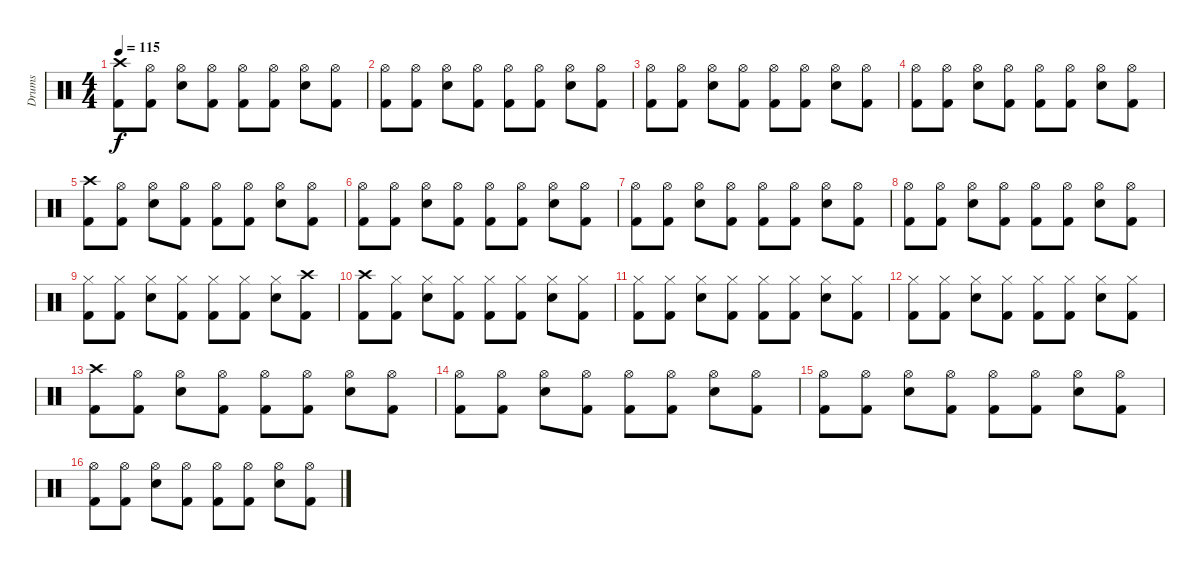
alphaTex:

\track ("Drums" "Drums") {instrument percussion}
\staff {score}
\articulation defaults
\ts (4 4)
\tempo 115
\clef neutral
\ks c
("Kick (hit) 2" "Crash high (hit)").8{dy f} ("Kick (hit) 2" "Hi-Hat (open)").8 ("Electric Snare (hit)" "Hi-Hat (open)").8 ("Kick (hit) 2" "Hi-Hat (open)").8 ("Kick (hit) 2" "Hi-Hat (open)").8 ("Kick (hit) 2" "Hi-Hat (open)").8 ("Electric Snare (hit)" "Hi-Hat (open)").8 ("Hi-Hat (open)" "Kick (hit) 2").8 |
("Kick (hit) 2" "Hi-Hat (open)").8 ("Kick (hit) 2" "Hi-Hat (open)").8 ("Hi-Hat (open)" "Electric Snare (hit)").8 ("Hi-Hat (open)" "Kick (hit) 2").8 ("Hi-Hat (open)" "Kick (hit) 2").8 ("Hi-Hat (open)" "Kick (hit) 2").8 ("Hi-Hat (open)" "Electric Snare (hit)").8 ("Hi-Hat (open)" "Kick (hit) 2").8 |
("Kick (hit) 2" "Hi-Hat (open)").8 ("Kick (hit) 2" "Hi-Hat (open)").8 ("Electric Snare (hit)" "Hi-Hat (open)").8 ("Kick (hit) 2" "Hi-Hat (open)").8 ("Kick (hit) 2" "Hi-Hat (open)").8 ("Kick (hit) 2" "Hi-Hat (open)").8 ("Electric Snare (hit)" "Hi-Hat (open)").8 ("Hi-Hat (open)" "Kick (hit) 2").8 |
("Kick (hit) 2" "Hi-Hat (open)").8 ("Kick (hit) 2" "Hi-Hat (open)").8 ("Hi-Hat (open)" "Electric Snare (hit)").8 ("Hi-Hat (open)" "Kick (hit) 2").8 ("Hi-Hat (open)" "Kick (hit) 2").8 ("Hi-Hat (open)" "Kick (hit) 2").8 ("Hi-Hat (open)" "Electric Snare (hit)").8 ("Hi-Hat (open)" "Kick (hit) 2").8 |
("Kick (hit) 2" "Crash high (hit)").8 ("Kick (hit) 2" "Hi-Hat (open)").8 ("Electric Snare (hit)" "Hi-Hat (open)").8 ("Kick (hit) 2" "Hi-Hat (open)").8 ("Kick (hit) 2" "Hi-Hat (open)").8 ("Kick (hit) 2" "Hi-Hat (open)").8 ("Electric Snare (hit)" "Hi-Hat (open)").8 ("Hi-Hat (open)" "Kick (hit) 2").8 |
("Kick (hit) 2" "Hi-Hat (open)").8 ("Kick (hit) 2" "Hi-Hat (open)").8 ("Hi-Hat (open)" "Electric Snare (hit)").8 ("Hi-Hat (open)" "Kick (hit) 2").8 ("Hi-Hat (open)" "Kick (hit) 2").8 ("Hi-Hat (open)" "Kick (hit) 2").8 ("Hi-Hat (open)" "Electric Snare (hit)").8 ("Hi-Hat (open)" "Kick (hit) 2").8 |
("Kick (hit) 2" "Hi-Hat (open)").8 ("Kick (hit) 2" "Hi-Hat (open)").8 ("Electric Snare (hit)" "Hi-Hat (open)").8 ("Kick (hit) 2" "Hi-Hat (open)").8 ("Kick (hit) 2" "Hi-Hat (open)").8 ("Kick (hit) 2" "Hi-Hat (open)").8 ("Electric Snare (hit)" "Hi-Hat (open)").8 ("Hi-Hat (open)" "Kick (hit) 2").8 |
("Kick (hit) 2" "Hi-Hat (open)").8 ("Kick (hit) 2" "Hi-Hat (open)").8 ("Hi-Hat (open)" "Electric Snare (hit)").8 ("Hi-Hat (open)" "Kick (hit) 2").8 ("Hi-Hat (open)" "Kick (hit) 2").8 ("Hi-Hat (open)" "Kick (hit) 2").8 ("Hi-Hat (open)" "Electric Snare (hit)").8 ("Hi-Hat (open)" "Kick (hit) 2").8 |
("Kick (hit) 2" "Hi-Hat (closed)").8 ("Kick (hit) 2" "Hi-Hat (closed)").8 ("Hi-Hat (closed)" "Electric Snare (hit)").8 ("Hi-Hat (closed)" "Kick (hit) 2").8 ("Hi-Hat (closed)" "Kick (hit) 2").8 ("Hi-Hat (closed)" "Kick (hit) 2").8 ("Hi-Hat (closed)" "Electric Snare (hit)").8 ("Crash high (hit)" "Kick (hit) 2").8 |
("Kick (hit) 2" "Crash high (hit)").8 ("Kick (hit) 2" "Hi-Hat (closed)").8 ("Electric Snare (hit)" "Hi-Hat (closed)").8 ("Kick (hit) 2" "Hi-Hat (closed)").8 ("Kick (hit) 2" "Hi-Hat (closed)").8 ("Kick (hit) 2" "Hi-Hat (closed)").8 ("Electric Snare (hit)" "Hi-Hat (closed)").8 ("Hi-Hat (closed)" "Kick (hit) 2").8 |
("Kick (hit) 2" "Hi-Hat (closed)").8 ("Kick (hit) 2" "Hi-Hat (closed)").8 ("Hi-Hat (closed)" "Electric Snare (hit)").8 ("Hi-Hat (closed)" "Kick (hit) 2").8 ("Hi-Hat (closed)" "Kick (hit) 2").8 ("Hi-Hat (closed)" "Kick (hit) 2").8 ("Hi-Hat (closed)" "Electric Snare (hit)").8 ("Hi-Hat (closed)" "Kick (hit) 2").8 |
("Kick (hit) 2" "Hi-Hat (closed)").8 ("Kick (hit) 2" "Hi-Hat (closed)").8 ("Electric Snare (hit)" "Hi-Hat (closed)").8 ("Kick (hit) 2" "Hi-Hat (closed)").8 ("Kick (hit) 2" "Hi-Hat (closed)").8 ("Kick (hit) 2" "Hi-Hat (closed)").8 ("Electric Snare (hit)" "Hi-Hat (closed)").8 ("Hi-Hat (closed)" "Kick (hit) 2").8 |
("Kick (hit) 2" "Crash high (hit)").8 ("Kick (hit) 2" "Hi-Hat (open)").8 ("Electric Snare (hit)" "Hi-Hat (open)").8 ("Kick (hit) 2" "Hi-Hat (open)").8 ("Kick (hit) 2" "Hi-Hat (open)").8 ("Kick (hit) 2" "Hi-Hat (open)").8 ("Electric Snare (hit)" "Hi-Hat (open)").8 ("Hi-Hat (open)" "Kick (hit) 2").8 |
("Kick (hit) 2" "Hi-Hat (open)").8 ("Kick (hit) 2" "Hi-Hat (open)").8 ("Hi-Hat (open)" "Electric Snare (hit)").8 ("Hi-Hat (open)" "Kick (hit) 2").8 ("Hi-Hat (open)" "Kick (hit) 2").8 ("Hi-Hat (open)" "Kick (hit) 2").8 ("Hi-Hat (open)" "Electric Snare (hit)").8 ("Hi-Hat (open)" "Kick (hit) 2").8 |
("Kick (hit) 2" "Hi-Hat (open)").8 ("Kick (hit) 2" "Hi-Hat (open)").8 ("Electric Snare (hit)" "Hi-Hat (open)").8 ("Kick (hit) 2" "Hi-Hat (open)").8 ("Kick (hit) 2" "Hi-Hat (open)").8 ("Kick (hit) 2" "Hi-Hat (open)").8 ("Electric Snare (hit)" "Hi-Hat (open)").8 ("Hi-Hat (open)" "Kick (hit) 2").8 |
("Kick (hit) 2" "Hi-Hat (open)").8 ("Kick (hit) 2" "Hi-Hat (open)").8 ("Hi-Hat (open)" "Electric Snare (hit)").8 ("Hi-Hat (open)" "Kick (hit) 2").8 ("Hi-Hat (open)" "Kick (hit) 2").8 ("Hi-Hat (open)" "Kick (hit) 2").8 ("Hi-Hat (open)" "Electric Snare (hit)").8 ("Hi-Hat (open)" "Kick (hit) 2").8
